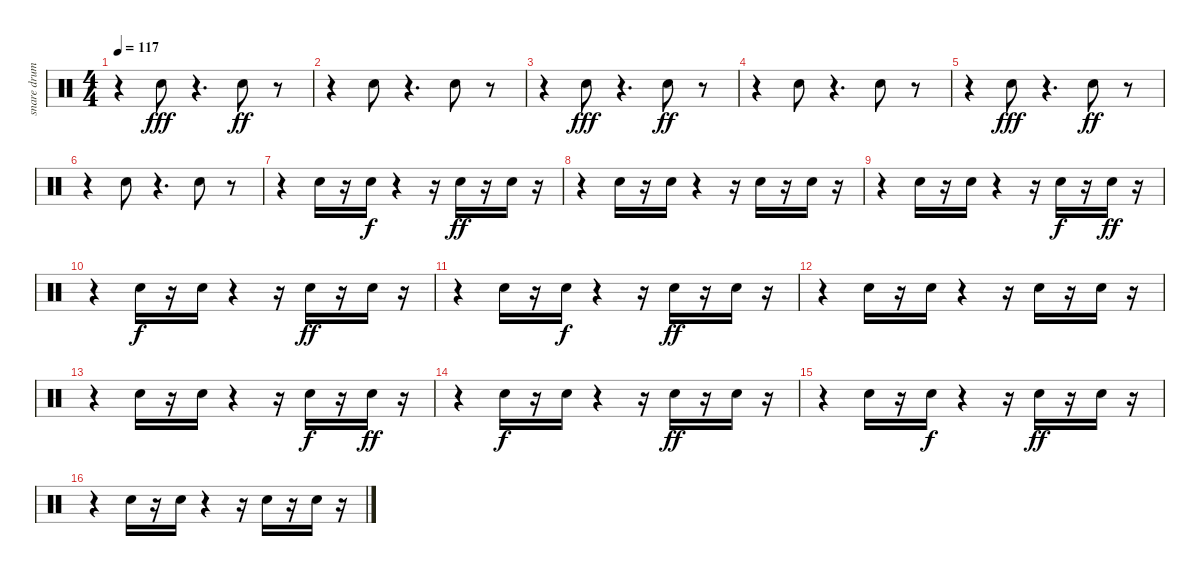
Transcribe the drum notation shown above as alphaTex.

\track ("snare drum" "snare drum") {instrument percussion}
\staff {score}
\articulation defaults
\ts (4 4)
\tempo 117
\clef neutral
\ks c
r.4{dy ff} "Snare (hit) 2".8{dy fff} r.4{d} "Snare (hit) 2".8{dy ff} r.8 |
r.4 "Snare (hit) 2".8 r.4{d} "Snare (hit) 2".8 r.8 |
r.4 "Snare (hit) 2".8{dy fff} r.4{d} "Snare (hit) 2".8{dy ff} r.8 |
r.4 "Snare (hit) 2".8 r.4{d} "Snare (hit) 2".8 r.8 |
r.4 "Snare (hit) 2".8{dy fff} r.4{d} "Snare (hit) 2".8{dy ff} r.8 |
r.4 "Snare (hit) 2".8 r.4{d} "Snare (hit) 2".8 r.8 |
r.4 "Snare (hit) 2".16 r.16 "Snare (hit) 2".16{dy f} r.4 r.16 "Snare (hit) 2".16{dy ff} r.16 "Snare (hit) 2".16 r.16 |
r.4 "Snare (hit) 2".16 r.16 "Snare (hit) 2".16 r.4 r.16 "Snare (hit) 2".16 r.16 "Snare (hit) 2".16 r.16 |
r.4 "Snare (hit) 2".16 r.16 "Snare (hit) 2".16 r.4 r.16 "Snare (hit) 2".16{dy f} r.16 "Snare (hit) 2".16{dy ff} r.16 |
r.4 "Snare (hit) 2".16{dy f} r.16 "Snare (hit) 2".16 r.4 r.16 "Snare (hit) 2".16{dy ff} r.16 "Snare (hit) 2".16 r.16 |
r.4 "Snare (hit) 2".16 r.16 "Snare (hit) 2".16{dy f} r.4 r.16 "Snare (hit) 2".16{dy ff} r.16 "Snare (hit) 2".16 r.16 |
r.4 "Snare (hit) 2".16 r.16 "Snare (hit) 2".16 r.4 r.16 "Snare (hit) 2".16 r.16 "Snare (hit) 2".16 r.16 |
r.4 "Snare (hit) 2".16 r.16 "Snare (hit) 2".16 r.4 r.16 "Snare (hit) 2".16{dy f} r.16 "Snare (hit) 2".16{dy ff} r.16 |
r.4 "Snare (hit) 2".16{dy f} r.16 "Snare (hit) 2".16 r.4 r.16 "Snare (hit) 2".16{dy ff} r.16 "Snare (hit) 2".16 r.16 |
r.4 "Snare (hit) 2".16 r.16 "Snare (hit) 2".16{dy f} r.4 r.16 "Snare (hit) 2".16{dy ff} r.16 "Snare (hit) 2".16 r.16 |
r.4 "Snare (hit) 2".16 r.16 "Snare (hit) 2".16 r.4 r.16 "Snare (hit) 2".16 r.16 "Snare (hit) 2".16 r.16
